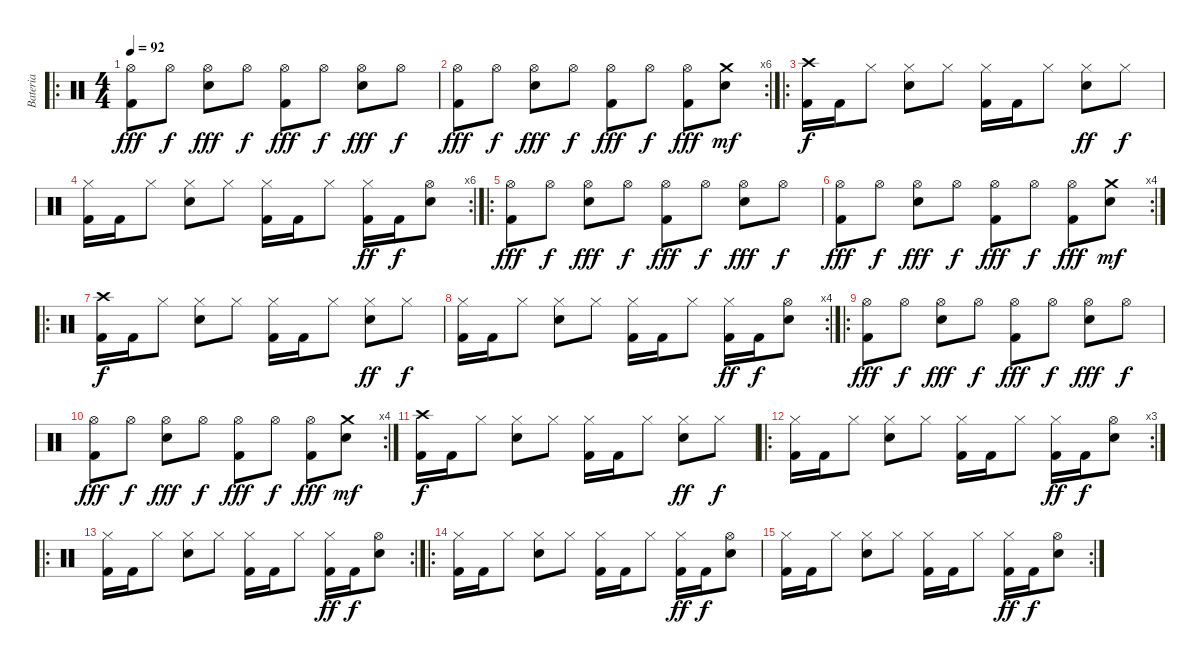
\track ("Bateria" "Bateria") {instrument percussion}
\staff {score}
\articulation defaults
\ro
\ts (4 4)
\tempo 92
\clef neutral
\ks c
("Hi-Hat (open)" "Kick (hit) 2").8{dy fff} "Hi-Hat (open)".8{dy f} ("Hi-Hat (open)" "Electric Snare (hit)").8{dy fff} "Hi-Hat (open)".8{dy f} ("Hi-Hat (open)" "Kick (hit) 2").8{dy fff} "Hi-Hat (open)".8{dy f} ("Hi-Hat (open)" "Electric Snare (hit)").8{dy fff} "Hi-Hat (open)".8{dy f} |
\rc 6
("Hi-Hat (open)" "Kick (hit) 2").8{dy fff} "Hi-Hat (open)".8{dy f} ("Hi-Hat (open)" "Electric Snare (hit)").8{dy fff} "Hi-Hat (open)".8{dy f} ("Hi-Hat (open)" "Kick (hit) 2").8{dy fff} "Hi-Hat (open)".8{dy f} ("Hi-Hat (open)" "Kick (hit) 2").8{dy fff} ("Crash medium (hit)" "Electric Snare (hit)").8{dy mf} |
\ro
("Crash high (hit)" "Kick (hit) 2").16{dy f} "Kick (hit) 2".16 "Hi-Hat (closed)".8 ("Hi-Hat (closed)" "Electric Snare (hit)").8 "Hi-Hat (closed)".8 ("Hi-Hat (closed)" "Kick (hit) 2").16 "Kick (hit) 2".16 "Hi-Hat (closed)".8 ("Hi-Hat (closed)" "Electric Snare (hit)").8{dy ff} "Hi-Hat (closed)".8{dy f} |
\rc 6
("Hi-Hat (closed)" "Kick (hit) 2").16 "Kick (hit) 2".16 "Hi-Hat (closed)".8 ("Hi-Hat (closed)" "Electric Snare (hit)").8 "Hi-Hat (closed)".8 ("Hi-Hat (closed)" "Kick (hit) 2").16 "Kick (hit) 2".16 "Hi-Hat (closed)".8 ("Hi-Hat (closed)" "Kick (hit) 2").16{dy ff} "Kick (hit) 2".16{dy f} ("Hi-Hat (open)" "Electric Snare (hit)").8 |
\ro
("Hi-Hat (open)" "Kick (hit) 2").8{dy fff} "Hi-Hat (open)".8{dy f} ("Hi-Hat (open)" "Electric Snare (hit)").8{dy fff} "Hi-Hat (open)".8{dy f} ("Hi-Hat (open)" "Kick (hit) 2").8{dy fff} "Hi-Hat (open)".8{dy f} ("Hi-Hat (open)" "Electric Snare (hit)").8{dy fff} "Hi-Hat (open)".8{dy f} |
\rc 4
("Hi-Hat (open)" "Kick (hit) 2").8{dy fff} "Hi-Hat (open)".8{dy f} ("Hi-Hat (open)" "Electric Snare (hit)").8{dy fff} "Hi-Hat (open)".8{dy f} ("Hi-Hat (open)" "Kick (hit) 2").8{dy fff} "Hi-Hat (open)".8{dy f} ("Hi-Hat (open)" "Kick (hit) 2").8{dy fff} ("Crash medium (hit)" "Electric Snare (hit)").8{dy mf} |
\ro
("Crash high (hit)" "Kick (hit) 2").16{dy f} "Kick (hit) 2".16 "Hi-Hat (closed)".8 ("Hi-Hat (closed)" "Electric Snare (hit)").8 "Hi-Hat (closed)".8 ("Hi-Hat (closed)" "Kick (hit) 2").16 "Kick (hit) 2".16 "Hi-Hat (closed)".8 ("Hi-Hat (closed)" "Electric Snare (hit)").8{dy ff} "Hi-Hat (closed)".8{dy f} |
\rc 4
("Hi-Hat (closed)" "Kick (hit) 2").16 "Kick (hit) 2".16 "Hi-Hat (closed)".8 ("Hi-Hat (closed)" "Electric Snare (hit)").8 "Hi-Hat (closed)".8 ("Hi-Hat (closed)" "Kick (hit) 2").16 "Kick (hit) 2".16 "Hi-Hat (closed)".8 ("Hi-Hat (closed)" "Kick (hit) 2").16{dy ff} "Kick (hit) 2".16{dy f} ("Hi-Hat (open)" "Electric Snare (hit)").8 |
\ro
("Hi-Hat (open)" "Kick (hit) 2").8{dy fff} "Hi-Hat (open)".8{dy f} ("Hi-Hat (open)" "Electric Snare (hit)").8{dy fff} "Hi-Hat (open)".8{dy f} ("Hi-Hat (open)" "Kick (hit) 2").8{dy fff} "Hi-Hat (open)".8{dy f} ("Hi-Hat (open)" "Electric Snare (hit)").8{dy fff} "Hi-Hat (open)".8{dy f} |
\rc 4
("Hi-Hat (open)" "Kick (hit) 2").8{dy fff} "Hi-Hat (open)".8{dy f} ("Hi-Hat (open)" "Electric Snare (hit)").8{dy fff} "Hi-Hat (open)".8{dy f} ("Hi-Hat (open)" "Kick (hit) 2").8{dy fff} "Hi-Hat (open)".8{dy f} ("Hi-Hat (open)" "Kick (hit) 2").8{dy fff} ("Crash medium (hit)" "Electric Snare (hit)").8{dy mf} |
("Crash high (hit)" "Kick (hit) 2").16{dy f} "Kick (hit) 2".16 "Hi-Hat (closed)".8 ("Hi-Hat (closed)" "Electric Snare (hit)").8 "Hi-Hat (closed)".8 ("Hi-Hat (closed)" "Kick (hit) 2").16 "Kick (hit) 2".16 "Hi-Hat (closed)".8 ("Hi-Hat (closed)" "Electric Snare (hit)").8{dy ff} "Hi-Hat (closed)".8{dy f} |
\ro
\rc 3
("Hi-Hat (closed)" "Kick (hit) 2").16 "Kick (hit) 2".16 "Hi-Hat (closed)".8 ("Hi-Hat (closed)" "Electric Snare (hit)").8 "Hi-Hat (closed)".8 ("Hi-Hat (closed)" "Kick (hit) 2").16 "Kick (hit) 2".16 "Hi-Hat (closed)".8 ("Hi-Hat (closed)" "Kick (hit) 2").16{dy ff} "Kick (hit) 2".16{dy f} ("Hi-Hat (open)" "Electric Snare (hit)").8 |
\ro
\rc 2
("Hi-Hat (closed)" "Kick (hit) 2").16 "Kick (hit) 2".16 "Hi-Hat (closed)".8 ("Hi-Hat (closed)" "Electric Snare (hit)").8 "Hi-Hat (closed)".8 ("Hi-Hat (closed)" "Kick (hit) 2").16 "Kick (hit) 2".16 "Hi-Hat (closed)".8 ("Hi-Hat (closed)" "Kick (hit) 2").16{dy ff} "Kick (hit) 2".16{dy f} ("Hi-Hat (open)" "Electric Snare (hit)").8 |
\ro
("Hi-Hat (closed)" "Kick (hit) 2").16 "Kick (hit) 2".16 "Hi-Hat (closed)".8 ("Hi-Hat (closed)" "Electric Snare (hit)").8 "Hi-Hat (closed)".8 ("Hi-Hat (closed)" "Kick (hit) 2").16 "Kick (hit) 2".16 "Hi-Hat (closed)".8 ("Hi-Hat (closed)" "Kick (hit) 2").16{dy ff} "Kick (hit) 2".16{dy f} ("Hi-Hat (open)" "Electric Snare (hit)").8 |
\rc 2
("Hi-Hat (closed)" "Kick (hit) 2").16 "Kick (hit) 2".16 "Hi-Hat (closed)".8 ("Hi-Hat (closed)" "Electric Snare (hit)").8 "Hi-Hat (closed)".8 ("Hi-Hat (closed)" "Kick (hit) 2").16 "Kick (hit) 2".16 "Hi-Hat (closed)".8 ("Hi-Hat (closed)" "Kick (hit) 2").16{dy ff} "Kick (hit) 2".16{dy f} ("Hi-Hat (open)" "Electric Snare (hit)").8
